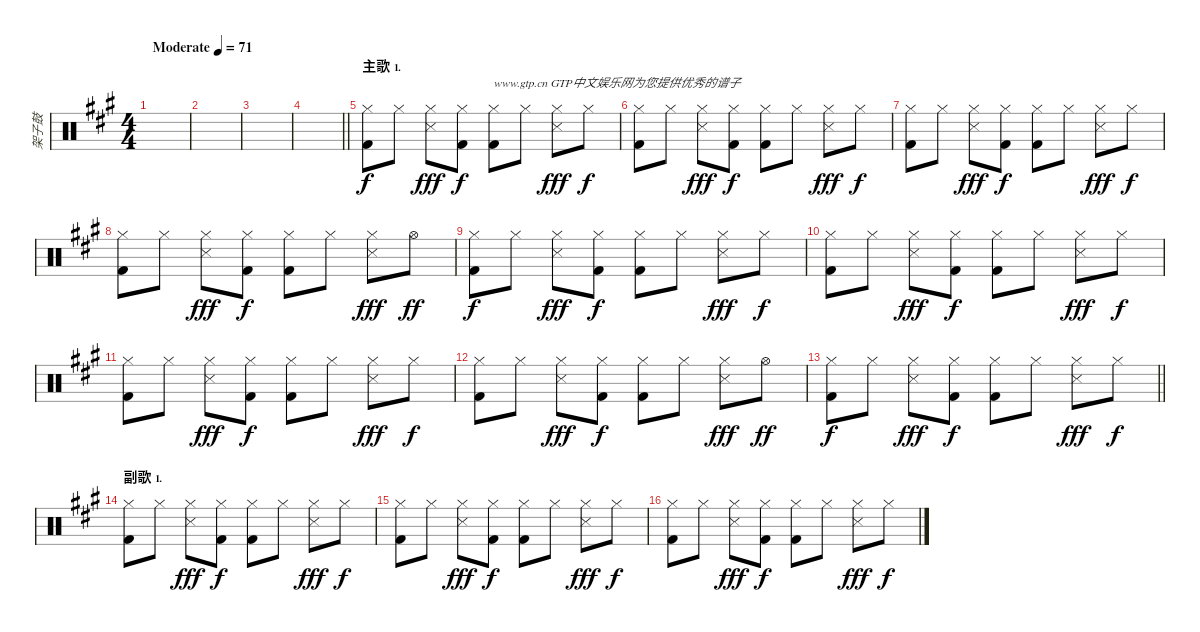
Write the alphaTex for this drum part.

\track ("架子鼓" "架子鼓") {instrument percussion}
\staff {score}
\articulation defaults
\ts (4 4)
\tempo (71 "Moderate")
\clef neutral
\ks a
|
|
|
\barLineRight lightlight
|
\section ("" "主歌⒈")
("Hi-Hat (closed)" "Kick (hit) 2").8 "Hi-Hat (closed)".8 ("Hi-Hat (closed)" "Snare (side stick) 3").8{dy fff} ("Hi-Hat (closed)" "Kick (hit) 2").8{dy f} ("Hi-Hat (closed)" "Kick (hit) 2").8{txt "www.gtp.cn GTP中文娱乐网为您提供优秀的谱子"} "Hi-Hat (closed)".8 ("Hi-Hat (closed)" "Snare (side stick) 3").8{dy fff} "Hi-Hat (closed)".8{dy f} |
("Hi-Hat (closed)" "Kick (hit) 2").8 "Hi-Hat (closed)".8 ("Hi-Hat (closed)" "Snare (side stick) 3").8{dy fff} ("Hi-Hat (closed)" "Kick (hit) 2").8{dy f} ("Hi-Hat (closed)" "Kick (hit) 2").8 "Hi-Hat (closed)".8 ("Hi-Hat (closed)" "Snare (side stick) 3").8{dy fff} "Hi-Hat (closed)".8{dy f} |
("Hi-Hat (closed)" "Kick (hit) 2").8 "Hi-Hat (closed)".8 ("Hi-Hat (closed)" "Snare (side stick) 3").8{dy fff} ("Hi-Hat (closed)" "Kick (hit) 2").8{dy f} ("Hi-Hat (closed)" "Kick (hit) 2").8 "Hi-Hat (closed)".8 ("Hi-Hat (closed)" "Snare (side stick) 3").8{dy fff} "Hi-Hat (closed)".8{dy f} |
("Hi-Hat (closed)" "Kick (hit) 2").8 "Hi-Hat (closed)".8 ("Hi-Hat (closed)" "Snare (side stick) 3").8{dy fff} ("Hi-Hat (closed)" "Kick (hit) 2").8{dy f} ("Hi-Hat (closed)" "Kick (hit) 2").8 "Hi-Hat (closed)".8 ("Hi-Hat (closed)" "Snare (side stick) 3").8{dy fff} "Hi-Hat (open)".8{dy ff} |
("Hi-Hat (closed)" "Kick (hit) 2").8{dy f} "Hi-Hat (closed)".8 ("Hi-Hat (closed)" "Snare (side stick) 3").8{dy fff} ("Hi-Hat (closed)" "Kick (hit) 2").8{dy f} ("Hi-Hat (closed)" "Kick (hit) 2").8 "Hi-Hat (closed)".8 ("Hi-Hat (closed)" "Snare (side stick) 3").8{dy fff} "Hi-Hat (closed)".8{dy f} |
("Hi-Hat (closed)" "Kick (hit) 2").8 "Hi-Hat (closed)".8 ("Hi-Hat (closed)" "Snare (side stick) 3").8{dy fff} ("Hi-Hat (closed)" "Kick (hit) 2").8{dy f} ("Hi-Hat (closed)" "Kick (hit) 2").8 "Hi-Hat (closed)".8 ("Hi-Hat (closed)" "Snare (side stick) 3").8{dy fff} "Hi-Hat (closed)".8{dy f} |
("Hi-Hat (closed)" "Kick (hit) 2").8 "Hi-Hat (closed)".8 ("Hi-Hat (closed)" "Snare (side stick) 3").8{dy fff} ("Hi-Hat (closed)" "Kick (hit) 2").8{dy f} ("Hi-Hat (closed)" "Kick (hit) 2").8 "Hi-Hat (closed)".8 ("Hi-Hat (closed)" "Snare (side stick) 3").8{dy fff} "Hi-Hat (closed)".8{dy f} |
("Hi-Hat (closed)" "Kick (hit) 2").8 "Hi-Hat (closed)".8 ("Hi-Hat (closed)" "Snare (side stick) 3").8{dy fff} ("Hi-Hat (closed)" "Kick (hit) 2").8{dy f} ("Hi-Hat (closed)" "Kick (hit) 2").8 "Hi-Hat (closed)".8 ("Hi-Hat (closed)" "Snare (side stick) 3").8{dy fff} "Hi-Hat (open)".8{dy ff} |
\barLineRight lightlight
("Hi-Hat (closed)" "Kick (hit) 2").8{dy f} "Hi-Hat (closed)".8 ("Hi-Hat (closed)" "Snare (side stick) 3").8{dy fff} ("Hi-Hat (closed)" "Kick (hit) 2").8{dy f} ("Hi-Hat (closed)" "Kick (hit) 2").8 "Hi-Hat (closed)".8 ("Hi-Hat (closed)" "Snare (side stick) 3").8{dy fff} "Hi-Hat (closed)".8{dy f} |
\section ("" "副歌⒈")
("Hi-Hat (closed)" "Kick (hit) 2").8 "Hi-Hat (closed)".8 ("Hi-Hat (closed)" "Snare (side stick) 3").8{dy fff} ("Hi-Hat (closed)" "Kick (hit) 2").8{dy f} ("Hi-Hat (closed)" "Kick (hit) 2").8 "Hi-Hat (closed)".8 ("Hi-Hat (closed)" "Snare (side stick) 3").8{dy fff} "Hi-Hat (closed)".8{dy f} |
("Hi-Hat (closed)" "Kick (hit) 2").8 "Hi-Hat (closed)".8 ("Hi-Hat (closed)" "Snare (side stick) 3").8{dy fff} ("Hi-Hat (closed)" "Kick (hit) 2").8{dy f} ("Hi-Hat (closed)" "Kick (hit) 2").8 "Hi-Hat (closed)".8 ("Hi-Hat (closed)" "Snare (side stick) 3").8{dy fff} "Hi-Hat (closed)".8{dy f} |
("Hi-Hat (closed)" "Kick (hit) 2").8 "Hi-Hat (closed)".8 ("Hi-Hat (closed)" "Snare (side stick) 3").8{dy fff} ("Hi-Hat (closed)" "Kick (hit) 2").8{dy f} ("Hi-Hat (closed)" "Kick (hit) 2").8 "Hi-Hat (closed)".8 ("Hi-Hat (closed)" "Snare (side stick) 3").8{dy fff} "Hi-Hat (closed)".8{dy f}
